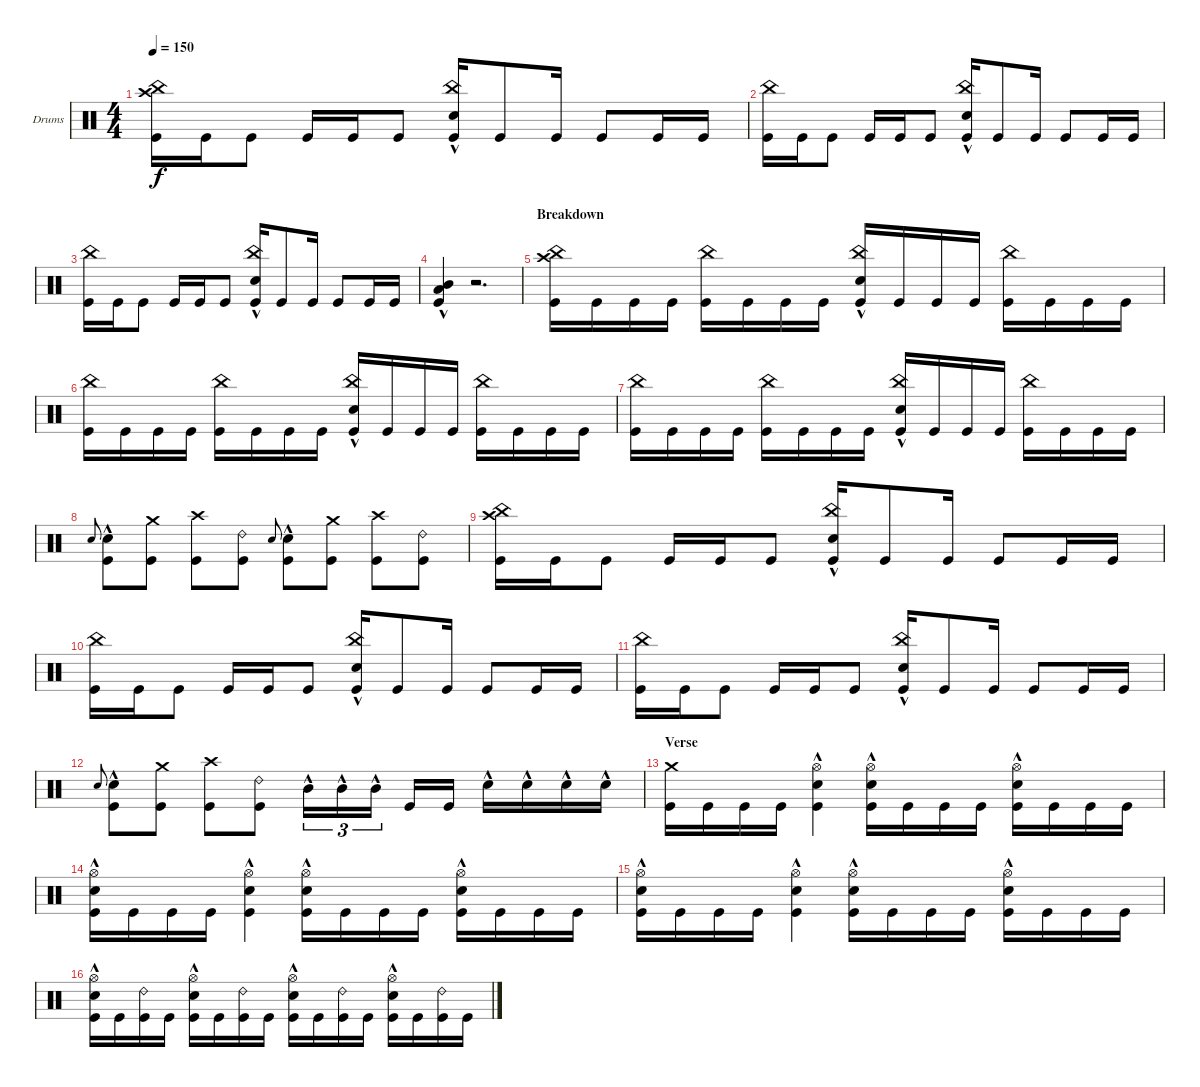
\bracketExtendMode groupsimilarinstruments
\firstSystemTrackNameOrientation horizontal
\otherSystemsTrackNameOrientation horizontal
\track ("Drumkit" "Drums") {instrument percussion}
\staff {score}
\articulation defaults
\ts (4 4)
\tempo 150
\clef neutral
\ks aminor
("Kick (hit)" "China (hit)" "Crash high (hit)").16{dy f} "Kick (hit)".16 "Kick (hit)".8 "Kick (hit)".16 "Kick (hit)".16 "Kick (hit)".8 ("Kick (hit)" "China (hit)" "Snare (hit) 2"{hac}).16 "Kick (hit)".8 "Kick (hit)".16 "Kick (hit)".8 "Kick (hit)".16 "Kick (hit)".16 |
("Kick (hit)" "China (hit)").16 "Kick (hit)".16 "Kick (hit)".8 "Kick (hit)".16 "Kick (hit)".16 "Kick (hit)".8 ("Kick (hit)" "China (hit)" "Snare (hit) 2"{hac}).16 "Kick (hit)".8 "Kick (hit)".16 "Kick (hit)".8 "Kick (hit)".16 "Kick (hit)".16 |
("Kick (hit)" "China (hit)").16 "Kick (hit)".16 "Kick (hit)".8 "Kick (hit)".16 "Kick (hit)".16 "Kick (hit)".8 ("Kick (hit)" "China (hit)" "Snare (hit) 2"{hac}).16 "Kick (hit)".8 "Kick (hit)".16 "Kick (hit)".8 "Kick (hit)".16 "Kick (hit)".16 |
("Kick (hit)" "Low Tom (hit)"{hac} "Mid Tom (hit)"{hac}).4 r.2{d} |
\section ("" "Breakdown")
("Kick (hit)" "China (hit)" "Crash high (hit)").16 "Kick (hit)".16 "Kick (hit)".16 "Kick (hit)".16 ("Kick (hit)" "China (hit)").16 "Kick (hit)".16 "Kick (hit)".16 "Kick (hit)".16 ("Kick (hit)" "China (hit)" "Snare (hit) 2"{hac}).16 "Kick (hit)".16 "Kick (hit)".16 "Kick (hit)".16 ("Kick (hit)" "China (hit)").16 "Kick (hit)".16 "Kick (hit)".16 "Kick (hit)".16 |
("Kick (hit)" "China (hit)").16 "Kick (hit)".16 "Kick (hit)".16 "Kick (hit)".16 ("Kick (hit)" "China (hit)").16 "Kick (hit)".16 "Kick (hit)".16 "Kick (hit)".16 ("Kick (hit)" "China (hit)" "Snare (hit) 2"{hac}).16 "Kick (hit)".16 "Kick (hit)".16 "Kick (hit)".16 ("Kick (hit)" "China (hit)").16 "Kick (hit)".16 "Kick (hit)".16 "Kick (hit)".16 |
("Kick (hit)" "China (hit)").16 "Kick (hit)".16 "Kick (hit)".16 "Kick (hit)".16 ("Kick (hit)" "China (hit)").16 "Kick (hit)".16 "Kick (hit)".16 "Kick (hit)".16 ("Kick (hit)" "China (hit)" "Snare (hit) 2"{hac}).16 "Kick (hit)".16 "Kick (hit)".16 "Kick (hit)".16 ("Kick (hit)" "China (hit)").16 "Kick (hit)".16 "Kick (hit)".16 "Kick (hit)".16 |
"Snare (hit) 2".8{gr onbeat} ("Kick (hit)" "Snare (hit) 2"{hac}).8 ("Kick (hit)" "Crash medium (hit)").8 ("Kick (hit)" "Crash high (hit)").8 ("Kick (hit)" "Ride (bell) 2").8 "Snare (hit) 2".8{gr onbeat} ("Kick (hit)" "Snare (hit) 2"{hac}).8 ("Kick (hit)" "Crash medium (hit)").8 ("Kick (hit)" "Crash high (hit)").8 ("Kick (hit)" "Ride (bell) 2").8 |
("Kick (hit)" "China (hit)" "Crash high (hit)").16 "Kick (hit)".16 "Kick (hit)".8 "Kick (hit)".16 "Kick (hit)".16 "Kick (hit)".8 ("Kick (hit)" "China (hit)" "Snare (hit) 2"{hac}).16 "Kick (hit)".8 "Kick (hit)".16 "Kick (hit)".8 "Kick (hit)".16 "Kick (hit)".16 |
("Kick (hit)" "China (hit)").16 "Kick (hit)".16 "Kick (hit)".8 "Kick (hit)".16 "Kick (hit)".16 "Kick (hit)".8 ("Kick (hit)" "China (hit)" "Snare (hit) 2"{hac}).16 "Kick (hit)".8 "Kick (hit)".16 "Kick (hit)".8 "Kick (hit)".16 "Kick (hit)".16 |
("Kick (hit)" "China (hit)").16 "Kick (hit)".16 "Kick (hit)".8 "Kick (hit)".16 "Kick (hit)".16 "Kick (hit)".8 ("Kick (hit)" "China (hit)" "Snare (hit) 2"{hac}).16 "Kick (hit)".8 "Kick (hit)".16 "Kick (hit)".8 "Kick (hit)".16 "Kick (hit)".16 |
"Snare (hit) 2".8{gr onbeat} ("Kick (hit)" "Snare (hit) 2"{hac}).8 ("Kick (hit)" "Crash medium (hit)").8 ("Kick (hit)" "Crash high (hit)").8 ("Kick (hit)" "Ride (bell) 2").8 "Mid Tom (hit)"{hac}.16{tu (3 2)} "Mid Tom (hit)"{hac}.16{tu (3 2)} "Mid Tom (hit)"{hac}.16{tu (3 2)} "Kick (hit)".16 "Kick (hit)".16 "Snare (hit) 2"{hac}.16 "Snare (hit) 2"{hac}.16 "Snare (hit) 2"{hac}.16 "Snare (hit) 2"{hac}.16 |
\section ("" "Verse")
("Kick (hit)" "Crash medium (hit)").16 "Kick (hit)".16 "Kick (hit)".16 "Kick (hit)".16 ("Kick (hit)" "Snare (hit) 2"{hac} "Hi-Hat (open)").4 ("Kick (hit)" "Snare (hit) 2"{hac} "Hi-Hat (open)").16 "Kick (hit)".16 "Kick (hit)".16 "Kick (hit)".16 ("Kick (hit)" "Snare (hit) 2"{hac} "Hi-Hat (open)").16 "Kick (hit)".16 "Kick (hit)".16 "Kick (hit)".16 |
("Kick (hit)" "Snare (hit) 2"{hac} "Hi-Hat (open)").16 "Kick (hit)".16 "Kick (hit)".16 "Kick (hit)".16 ("Kick (hit)" "Snare (hit) 2"{hac} "Hi-Hat (open)").4 ("Kick (hit)" "Snare (hit) 2"{hac} "Hi-Hat (open)").16 "Kick (hit)".16 "Kick (hit)".16 "Kick (hit)".16 ("Kick (hit)" "Snare (hit) 2"{hac} "Hi-Hat (open)").16 "Kick (hit)".16 "Kick (hit)".16 "Kick (hit)".16 |
("Kick (hit)" "Snare (hit) 2"{hac} "Hi-Hat (open)").16 "Kick (hit)".16 "Kick (hit)".16 "Kick (hit)".16 ("Kick (hit)" "Snare (hit) 2"{hac} "Hi-Hat (open)").4 ("Kick (hit)" "Snare (hit) 2"{hac} "Hi-Hat (open)").16 "Kick (hit)".16 "Kick (hit)".16 "Kick (hit)".16 ("Kick (hit)" "Snare (hit) 2"{hac} "Hi-Hat (open)").16 "Kick (hit)".16 "Kick (hit)".16 "Kick (hit)".16 |
("Kick (hit)" "Snare (hit) 2"{hac} "Hi-Hat (open)").16 "Kick (hit)".16 ("Kick (hit)" "Ride (bell) 2").16 "Kick (hit)".16 ("Kick (hit)" "Snare (hit) 2"{hac} "Hi-Hat (open)").16 "Kick (hit)".16 ("Kick (hit)" "Ride (bell) 2").16 "Kick (hit)".16 ("Kick (hit)" "Snare (hit) 2"{hac} "Hi-Hat (open)").16 "Kick (hit)".16 ("Kick (hit)" "Ride (bell) 2").16 "Kick (hit)".16 ("Kick (hit)" "Snare (hit) 2"{hac} "Hi-Hat (open)").16 "Kick (hit)".16 ("Kick (hit)" "Ride (bell) 2").16 "Kick (hit)".16
